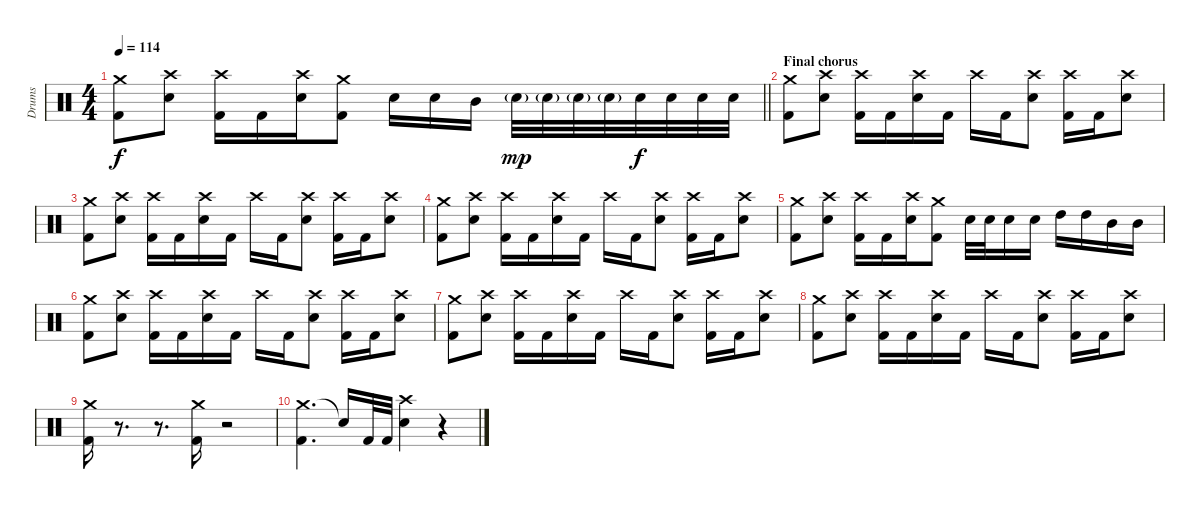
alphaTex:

\track ("Drums" "Drums") {instrument percussion}
\staff {score}
\articulation defaults
\ts (4 4)
\tempo 114
\clef neutral
\barLineRight lightlight
\ks c
("Crash medium (hit)" "Kick (hit) 2").8{dy f} ("Crash high (hit)" "Electric Snare (hit)").8 ("Crash high (hit)" "Kick (hit) 2").16 "Kick (hit) 2".16 ("Crash high (hit)" "Electric Snare (hit)").16 ("Crash medium (hit)" "Kick (hit) 2").8 "Electric Snare (hit)".16 "Electric Snare (hit)".16 "Mid Tom (hit)".16 "Electric Snare (hit)"{g}.32{dy mp} "Electric Snare (hit)"{g}.32 "Electric Snare (hit)"{g}.32 "Electric Snare (hit)"{g}.32 "Electric Snare (hit)".32{dy f} "Electric Snare (hit)".32 "Electric Snare (hit)".32 "Electric Snare (hit)".32 |
\section ("" "Final chorus")
("Crash medium (hit)" "Kick (hit) 2").8 ("Crash high (hit)" "Electric Snare (hit)").8 ("Crash high (hit)" "Kick (hit) 2").16 "Kick (hit) 2".16 ("Crash high (hit)" "Electric Snare (hit)").16 "Kick (hit) 2".16 "Crash high (hit)".16 "Kick (hit) 2".16 ("Crash high (hit)" "Electric Snare (hit)").8 ("Crash high (hit)" "Kick (hit) 2").16 "Kick (hit) 2".16 ("Crash high (hit)" "Electric Snare (hit)").8 |
("Crash medium (hit)" "Kick (hit) 2").8 ("Crash high (hit)" "Electric Snare (hit)").8 ("Crash high (hit)" "Kick (hit) 2").16 "Kick (hit) 2".16 ("Crash high (hit)" "Electric Snare (hit)").16 "Kick (hit) 2".16 "Crash high (hit)".16 "Kick (hit) 2".16 ("Crash high (hit)" "Electric Snare (hit)").8 ("Crash high (hit)" "Kick (hit) 2").16 "Kick (hit) 2".16 ("Crash high (hit)" "Electric Snare (hit)").8 |
("Crash medium (hit)" "Kick (hit) 2").8 ("Crash high (hit)" "Electric Snare (hit)").8 ("Crash high (hit)" "Kick (hit) 2").16 "Kick (hit) 2".16 ("Crash high (hit)" "Electric Snare (hit)").16 "Kick (hit) 2".16 "Crash high (hit)".16 "Kick (hit) 2".16 ("Crash high (hit)" "Electric Snare (hit)").8 ("Crash high (hit)" "Kick (hit) 2").16 "Kick (hit) 2".16 ("Crash high (hit)" "Electric Snare (hit)").8 |
("Crash medium (hit)" "Kick (hit) 2").8 ("Crash high (hit)" "Electric Snare (hit)").8 ("Crash high (hit)" "Kick (hit) 2").16 "Kick (hit) 2".16 ("Crash high (hit)" "Electric Snare (hit)").16 ("Crash medium (hit)" "Kick (hit) 2").8 "Electric Snare (hit)".32 "Electric Snare (hit)".32 "Electric Snare (hit)".16 "Electric Snare (hit)".16 "High Tom (hit)".16 "High Tom (hit)".16 "Mid Tom (hit)".16 "Mid Tom (hit)".16 |
("Crash medium (hit)" "Kick (hit) 2").8 ("Crash high (hit)" "Electric Snare (hit)").8 ("Crash high (hit)" "Kick (hit) 2").16 "Kick (hit) 2".16 ("Crash high (hit)" "Electric Snare (hit)").16 "Kick (hit) 2".16 "Crash high (hit)".16 "Kick (hit) 2".16 ("Crash high (hit)" "Electric Snare (hit)").8 ("Crash high (hit)" "Kick (hit) 2").16 "Kick (hit) 2".16 ("Crash high (hit)" "Electric Snare (hit)").8 |
("Crash medium (hit)" "Kick (hit) 2").8 ("Crash high (hit)" "Electric Snare (hit)").8 ("Crash high (hit)" "Kick (hit) 2").16 "Kick (hit) 2".16 ("Crash high (hit)" "Electric Snare (hit)").16 "Kick (hit) 2".16 "Crash high (hit)".16 "Kick (hit) 2".16 ("Crash high (hit)" "Electric Snare (hit)").8 ("Crash high (hit)" "Kick (hit) 2").16 "Kick (hit) 2".16 ("Crash high (hit)" "Electric Snare (hit)").8 |
("Crash medium (hit)" "Kick (hit) 2").8 ("Crash high (hit)" "Electric Snare (hit)").8 ("Crash high (hit)" "Kick (hit) 2").16 "Kick (hit) 2".16 ("Crash high (hit)" "Electric Snare (hit)").16 "Kick (hit) 2".16 "Crash high (hit)".16 "Kick (hit) 2".16 ("Crash high (hit)" "Electric Snare (hit)").8 ("Crash high (hit)" "Kick (hit) 2").16 "Kick (hit) 2".16 ("Crash high (hit)" "Electric Snare (hit)").8 |
("Crash medium (hit)" "Kick (hit) 2").16 r.8{d} r.8{d} ("Crash medium (hit)" "Kick (hit) 2").16 r.2 |
("Crash medium (hit)" "Kick (hit) 2").4{d} "Snare (hit)"{t}.16 "Kick (hit) 2".32 "Kick (hit) 2".32 ("Crash high (hit)" "Electric Snare (hit)").4 r.4
